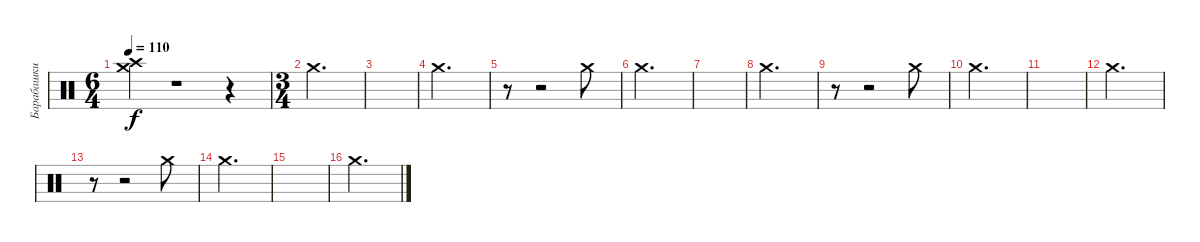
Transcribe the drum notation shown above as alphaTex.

\track ("Барабашки High" "Барабашки ") {instrument percussion}
\staff {score}
\articulation defaults
\ts (6 4)
\tempo 110
\clef neutral
\ks c
("Crash medium (hit)" "Crash high (hit)").4{dy f} r.1 r.4 |
\ts (3 4)
"Crash medium (hit)".2{d} |
|
"Crash medium (hit)".2{d} |
r.8 r.2 "Crash medium (hit)".8 |
"Crash medium (hit)".2{d} |
|
"Crash medium (hit)".2{d} |
r.8 r.2 "Crash medium (hit)".8 |
"Crash medium (hit)".2{d} |
|
"Crash medium (hit)".2{d} |
r.8 r.2 "Crash medium (hit)".8 |
"Crash medium (hit)".2{d} |
|
"Crash medium (hit)".2{d}
